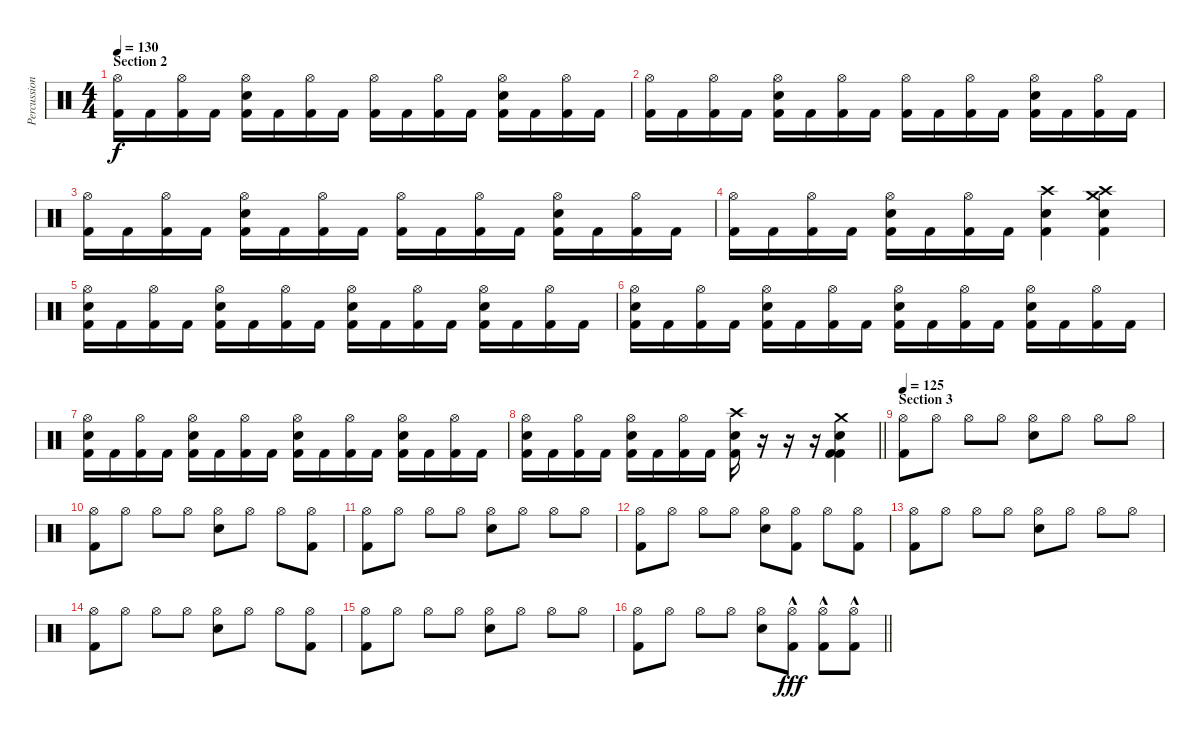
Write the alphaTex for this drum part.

\track ("Percussions" "Percussion") {instrument percussion}
\staff {score}
\articulation defaults
\ts (4 4)
\section ("" "Section 2")
\tempo 130
\clef neutral
\ks c
("Hi-Hat (open)" "Kick (hit) 2").16{dy f} "Kick (hit) 2".16 ("Hi-Hat (open)" "Kick (hit) 2").16 "Kick (hit) 2".16 ("Hi-Hat (open)" "Electric Snare (hit)" "Kick (hit) 2").16 "Kick (hit) 2".16 ("Hi-Hat (open)" "Kick (hit) 2").16 "Kick (hit) 2".16 ("Hi-Hat (open)" "Kick (hit) 2").16 "Kick (hit) 2".16 ("Hi-Hat (open)" "Kick (hit) 2").16 "Kick (hit) 2".16 ("Hi-Hat (open)" "Electric Snare (hit)" "Kick (hit) 2").16 "Kick (hit) 2".16 ("Hi-Hat (open)" "Kick (hit) 2").16 "Kick (hit) 2".16 |
("Hi-Hat (open)" "Kick (hit) 2").16 "Kick (hit) 2".16 ("Hi-Hat (open)" "Kick (hit) 2").16 "Kick (hit) 2".16 ("Hi-Hat (open)" "Electric Snare (hit)" "Kick (hit) 2").16 "Kick (hit) 2".16 ("Hi-Hat (open)" "Kick (hit) 2").16 "Kick (hit) 2".16 ("Hi-Hat (open)" "Kick (hit) 2").16 "Kick (hit) 2".16 ("Hi-Hat (open)" "Kick (hit) 2").16 "Kick (hit) 2".16 ("Hi-Hat (open)" "Electric Snare (hit)" "Kick (hit) 2").16 "Kick (hit) 2".16 ("Hi-Hat (open)" "Kick (hit) 2").16 "Kick (hit) 2".16 |
("Hi-Hat (open)" "Kick (hit) 2").16 "Kick (hit) 2".16 ("Hi-Hat (open)" "Kick (hit) 2").16 "Kick (hit) 2".16 ("Hi-Hat (open)" "Electric Snare (hit)" "Kick (hit) 2").16 "Kick (hit) 2".16 ("Hi-Hat (open)" "Kick (hit) 2").16 "Kick (hit) 2".16 ("Hi-Hat (open)" "Kick (hit) 2").16 "Kick (hit) 2".16 ("Hi-Hat (open)" "Kick (hit) 2").16 "Kick (hit) 2".16 ("Hi-Hat (open)" "Electric Snare (hit)" "Kick (hit) 2").16 "Kick (hit) 2".16 ("Hi-Hat (open)" "Kick (hit) 2").16 "Kick (hit) 2".16 |
("Hi-Hat (open)" "Kick (hit) 2").16 "Kick (hit) 2".16 ("Hi-Hat (open)" "Kick (hit) 2").16 "Kick (hit) 2".16 ("Hi-Hat (open)" "Electric Snare (hit)" "Kick (hit) 2").16 "Kick (hit) 2".16 ("Hi-Hat (open)" "Kick (hit) 2").16 "Kick (hit) 2".16 ("Crash high (hit)" "Electric Snare (hit)" "Kick (hit) 2").4 ("Crash medium (hit)" "Crash high (hit)" "Electric Snare (hit)" "Kick (hit) 2").4 |
("Hi-Hat (open)" "Electric Snare (hit)" "Kick (hit) 2").16 "Kick (hit) 2".16 ("Hi-Hat (open)" "Kick (hit) 2").16 "Kick (hit) 2".16 ("Hi-Hat (open)" "Electric Snare (hit)" "Kick (hit) 2").16 "Kick (hit) 2".16 ("Hi-Hat (open)" "Kick (hit) 2").16 "Kick (hit) 2".16 ("Hi-Hat (open)" "Electric Snare (hit)" "Kick (hit) 2").16 "Kick (hit) 2".16 ("Hi-Hat (open)" "Kick (hit) 2").16 "Kick (hit) 2".16 ("Hi-Hat (open)" "Electric Snare (hit)" "Kick (hit) 2").16 "Kick (hit) 2".16 ("Hi-Hat (open)" "Kick (hit) 2").16 "Kick (hit) 2".16 |
("Hi-Hat (open)" "Electric Snare (hit)" "Kick (hit) 2").16 "Kick (hit) 2".16 ("Hi-Hat (open)" "Kick (hit) 2").16 "Kick (hit) 2".16 ("Hi-Hat (open)" "Electric Snare (hit)" "Kick (hit) 2").16 "Kick (hit) 2".16 ("Hi-Hat (open)" "Kick (hit) 2").16 "Kick (hit) 2".16 ("Hi-Hat (open)" "Electric Snare (hit)" "Kick (hit) 2").16 "Kick (hit) 2".16 ("Hi-Hat (open)" "Kick (hit) 2").16 "Kick (hit) 2".16 ("Hi-Hat (open)" "Electric Snare (hit)" "Kick (hit) 2").16 "Kick (hit) 2".16 ("Hi-Hat (open)" "Kick (hit) 2").16 "Kick (hit) 2".16 |
("Hi-Hat (open)" "Electric Snare (hit)" "Kick (hit) 2").16 "Kick (hit) 2".16 ("Hi-Hat (open)" "Kick (hit) 2").16 "Kick (hit) 2".16 ("Hi-Hat (open)" "Electric Snare (hit)" "Kick (hit) 2").16 "Kick (hit) 2".16 ("Hi-Hat (open)" "Kick (hit) 2").16 "Kick (hit) 2".16 ("Hi-Hat (open)" "Electric Snare (hit)" "Kick (hit) 2").16 "Kick (hit) 2".16 ("Hi-Hat (open)" "Kick (hit) 2").16 "Kick (hit) 2".16 ("Hi-Hat (open)" "Electric Snare (hit)" "Kick (hit) 2").16 "Kick (hit) 2".16 ("Hi-Hat (open)" "Kick (hit) 2").16 "Kick (hit) 2".16 |
\barLineRight lightlight
("Hi-Hat (open)" "Electric Snare (hit)" "Kick (hit) 2").16 "Kick (hit) 2".16 ("Hi-Hat (open)" "Kick (hit) 2").16 "Kick (hit) 2".16 ("Hi-Hat (open)" "Electric Snare (hit)" "Kick (hit) 2").16 "Kick (hit) 2".16 ("Hi-Hat (open)" "Kick (hit) 2").16 "Kick (hit) 2".16 ("Crash high (hit)" "Electric Snare (hit)" "Kick (hit) 2").16 r.16 r.16 r.16 ("Crash medium (hit)" "Electric Snare (hit)" "Kick (hit) 2" "Kick (hit) 2").4 |
\section ("" "Section 3")
\tempo 125
("Hi-Hat (open)" "Kick (hit) 2").8 "Hi-Hat (open)".8 "Hi-Hat (open)".8 "Hi-Hat (open)".8 ("Hi-Hat (open)" "Electric Snare (hit)").8 "Hi-Hat (open)".8 "Hi-Hat (open)".8 "Hi-Hat (open)".8 |
("Hi-Hat (open)" "Kick (hit) 2").8 "Hi-Hat (open)".8 "Hi-Hat (open)".8 "Hi-Hat (open)".8 ("Hi-Hat (open)" "Electric Snare (hit)").8 "Hi-Hat (open)".8 "Hi-Hat (open)".8 ("Hi-Hat (open)" "Kick (hit) 2").8 |
("Hi-Hat (open)" "Kick (hit) 2").8 "Hi-Hat (open)".8 "Hi-Hat (open)".8 "Hi-Hat (open)".8 ("Hi-Hat (open)" "Electric Snare (hit)").8 "Hi-Hat (open)".8 "Hi-Hat (open)".8 "Hi-Hat (open)".8 |
("Hi-Hat (open)" "Kick (hit) 2").8 "Hi-Hat (open)".8 "Hi-Hat (open)".8 "Hi-Hat (open)".8 ("Hi-Hat (open)" "Electric Snare (hit)").8 ("Hi-Hat (open)" "Kick (hit) 2").8 "Hi-Hat (open)".8 ("Hi-Hat (open)" "Kick (hit) 2").8 |
("Hi-Hat (open)" "Kick (hit) 2").8 "Hi-Hat (open)".8 "Hi-Hat (open)".8 "Hi-Hat (open)".8 ("Hi-Hat (open)" "Electric Snare (hit)").8 "Hi-Hat (open)".8 "Hi-Hat (open)".8 "Hi-Hat (open)".8 |
("Hi-Hat (open)" "Kick (hit) 2").8 "Hi-Hat (open)".8 "Hi-Hat (open)".8 "Hi-Hat (open)".8 ("Hi-Hat (open)" "Electric Snare (hit)").8 "Hi-Hat (open)".8 "Hi-Hat (open)".8 ("Hi-Hat (open)" "Kick (hit) 2").8 |
("Hi-Hat (open)" "Kick (hit) 2").8 "Hi-Hat (open)".8 "Hi-Hat (open)".8 "Hi-Hat (open)".8 ("Hi-Hat (open)" "Electric Snare (hit)").8 "Hi-Hat (open)".8 "Hi-Hat (open)".8 "Hi-Hat (open)".8 |
\barLineRight lightlight
("Hi-Hat (open)" "Kick (hit) 2").8 "Hi-Hat (open)".8 "Hi-Hat (open)".8 "Hi-Hat (open)".8 ("Hi-Hat (open)" "Electric Snare (hit)").8 ("Hi-Hat (open)"{hac} "Kick (hit) 2").8{dy fff} ("Hi-Hat (open)"{hac} "Kick (hit) 2").8 ("Hi-Hat (open)"{hac} "Kick (hit) 2").8
